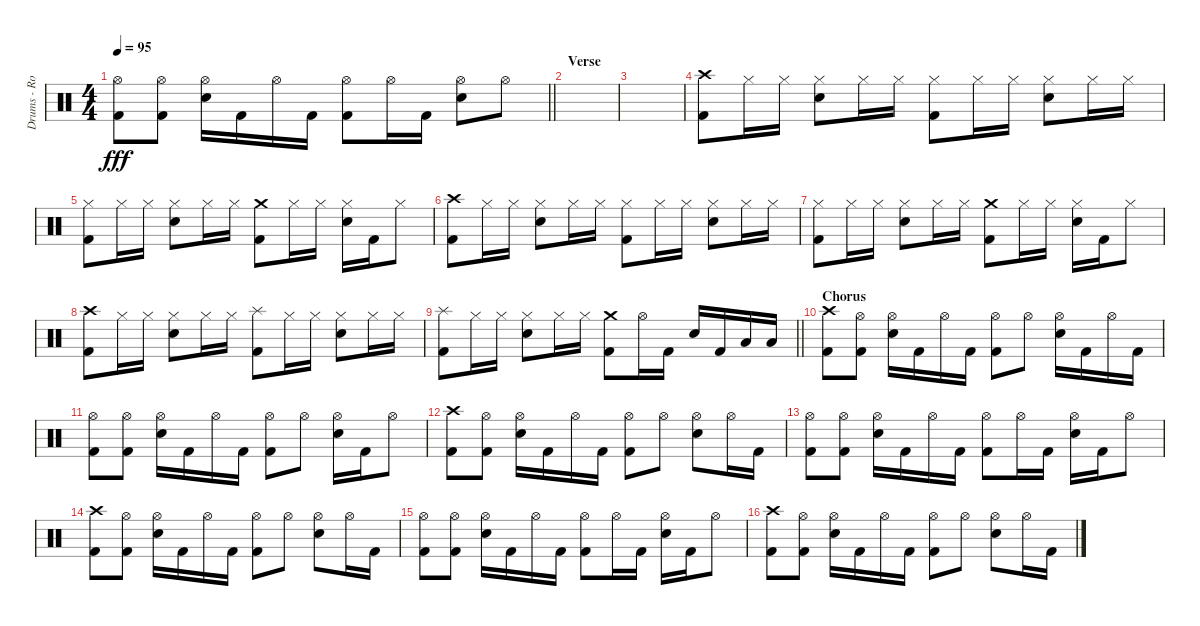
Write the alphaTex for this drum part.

\track ("Drums - Rob Bourdon" "Drums - Ro") {instrument percussion}
\staff {score}
\articulation defaults
\ts (4 4)
\tempo 95
\clef neutral
\barLineRight lightlight
\ks c
("Hi-Hat (open)" "Kick (hit) 2").8{dy fff} ("Hi-Hat (open)" "Kick (hit) 2").8 ("Hi-Hat (open)" "Snare (hit) 2").16 "Kick (hit) 2".16 "Hi-Hat (open)".16 "Kick (hit) 2".16 ("Hi-Hat (open)" "Kick (hit) 2").8 "Hi-Hat (open)".16 "Kick (hit) 2".16 ("Hi-Hat (open)" "Snare (hit) 2").8 "Hi-Hat (open)".8 |
\section ("" "Verse")
|
|
("Crash high (hit)" "Kick (hit) 2").8 "Hi-Hat (closed)".16 "Hi-Hat (closed)".16 ("Hi-Hat (closed)" "Snare (hit) 2").8 "Hi-Hat (closed)".16 "Hi-Hat (closed)".16 ("Hi-Hat (closed)" "Kick (hit) 2").8 "Hi-Hat (closed)".16 "Hi-Hat (closed)".16 ("Hi-Hat (closed)" "Snare (hit) 2").8 "Hi-Hat (closed)".16 "Hi-Hat (closed)".16 |
("Hi-Hat (closed)" "Kick (hit) 2").8 "Hi-Hat (closed)".16 "Hi-Hat (closed)".16 ("Hi-Hat (closed)" "Snare (hit) 2").8 "Hi-Hat (closed)".16 "Hi-Hat (closed)".16 ("Crash medium (hit)" "Kick (hit) 2").8 "Hi-Hat (closed)".16 "Hi-Hat (closed)".16 ("Hi-Hat (closed)" "Snare (hit) 2").16 "Kick (hit) 2".16 "Hi-Hat (closed)".8 |
("Crash high (hit)" "Kick (hit) 2").8 "Hi-Hat (closed)".16 "Hi-Hat (closed)".16 ("Hi-Hat (closed)" "Snare (hit) 2").8 "Hi-Hat (closed)".16 "Hi-Hat (closed)".16 ("Hi-Hat (closed)" "Kick (hit) 2").8 "Hi-Hat (closed)".16 "Hi-Hat (closed)".16 ("Hi-Hat (closed)" "Snare (hit) 2").8 "Hi-Hat (closed)".16 "Hi-Hat (closed)".16 |
("Hi-Hat (closed)" "Kick (hit) 2").8 "Hi-Hat (closed)".16 "Hi-Hat (closed)".16 ("Hi-Hat (closed)" "Snare (hit) 2").8 "Hi-Hat (closed)".16 "Hi-Hat (closed)".16 ("Crash medium (hit)" "Kick (hit) 2").8 "Hi-Hat (closed)".16 "Hi-Hat (closed)".16 ("Hi-Hat (closed)" "Snare (hit) 2").16 "Kick (hit) 2".16 "Hi-Hat (closed)".8 |
("Crash high (hit)" "Kick (hit) 2").8 "Hi-Hat (closed)".16 "Hi-Hat (closed)".16 ("Hi-Hat (closed)" "Snare (hit) 2").8 "Hi-Hat (closed)".16 "Hi-Hat (closed)".16 ("Splash (hit)" "Kick (hit) 2").8 "Hi-Hat (closed)".16 "Hi-Hat (closed)".16 ("Hi-Hat (closed)" "Snare (hit) 2").8 "Hi-Hat (closed)".16 "Hi-Hat (closed)".16 |
\barLineRight lightlight
("Splash (hit)" "Kick (hit) 2").8 "Hi-Hat (closed)".16 "Hi-Hat (closed)".16 ("Hi-Hat (closed)" "Snare (hit) 2").8 "Hi-Hat (closed)".16 "Hi-Hat (closed)".16 ("Crash medium (hit)" "Kick (hit) 2").8 "Hi-Hat (open)".16 "Kick (hit) 2".16 "Snare (hit) 2".16 "Kick (hit) 2".16 "Low Tom (hit)".16 "Low Tom (hit)".16 |
\section ("" "Chorus")
("Crash high (hit)" "Kick (hit) 2").8 ("Hi-Hat (open)" "Kick (hit) 2").8 ("Hi-Hat (open)" "Snare (hit) 2").16 "Kick (hit) 2".16 "Hi-Hat (open)".16 "Kick (hit) 2".16 ("Hi-Hat (open)" "Kick (hit) 2").8 "Hi-Hat (open)".8 ("Hi-Hat (open)" "Snare (hit) 2").16 "Kick (hit) 2".16 "Hi-Hat (open)".16 "Kick (hit) 2".16 |
("Hi-Hat (open)" "Kick (hit) 2").8 ("Hi-Hat (open)" "Kick (hit) 2").8 ("Hi-Hat (open)" "Snare (hit) 2").16 "Kick (hit) 2".16 "Hi-Hat (open)".16 "Kick (hit) 2".16 ("Hi-Hat (open)" "Kick (hit) 2").8 "Hi-Hat (open)".8 ("Hi-Hat (open)" "Snare (hit) 2").16 "Kick (hit) 2".16 "Hi-Hat (open)".8 |
("Crash high (hit)" "Kick (hit) 2").8 ("Hi-Hat (open)" "Kick (hit) 2").8 ("Hi-Hat (open)" "Snare (hit) 2").16 "Kick (hit) 2".16 "Hi-Hat (open)".16 "Kick (hit) 2".16 ("Hi-Hat (open)" "Kick (hit) 2").8 "Hi-Hat (open)".8 ("Hi-Hat (open)" "Snare (hit) 2").8 "Hi-Hat (open)".16 "Kick (hit) 2".16 |
("Hi-Hat (open)" "Kick (hit) 2").8 ("Hi-Hat (open)" "Kick (hit) 2").8 ("Hi-Hat (open)" "Snare (hit) 2").16 "Kick (hit) 2".16 "Hi-Hat (open)".16 "Kick (hit) 2".16 ("Hi-Hat (open)" "Kick (hit) 2").8 "Hi-Hat (open)".16 "Kick (hit) 2".16 ("Hi-Hat (open)" "Snare (hit) 2").16 "Kick (hit) 2".16 "Hi-Hat (open)".8 |
("Crash high (hit)" "Kick (hit) 2").8 ("Hi-Hat (open)" "Kick (hit) 2").8 ("Hi-Hat (open)" "Snare (hit) 2").16 "Kick (hit) 2".16 "Hi-Hat (open)".16 "Kick (hit) 2".16 ("Hi-Hat (open)" "Kick (hit) 2").8 "Hi-Hat (open)".8 ("Hi-Hat (open)" "Snare (hit) 2").8 "Hi-Hat (open)".16 "Kick (hit) 2".16 |
("Hi-Hat (open)" "Kick (hit) 2").8 ("Hi-Hat (open)" "Kick (hit) 2").8 ("Hi-Hat (open)" "Snare (hit) 2").16 "Kick (hit) 2".16 "Hi-Hat (open)".16 "Kick (hit) 2".16 ("Hi-Hat (open)" "Kick (hit) 2").8 "Hi-Hat (open)".16 "Kick (hit) 2".16 ("Hi-Hat (open)" "Snare (hit) 2").16 "Kick (hit) 2".16 "Hi-Hat (open)".8 |
("Crash high (hit)" "Kick (hit) 2").8 ("Hi-Hat (open)" "Kick (hit) 2").8 ("Hi-Hat (open)" "Snare (hit) 2").16 "Kick (hit) 2".16 "Hi-Hat (open)".16 "Kick (hit) 2".16 ("Hi-Hat (open)" "Kick (hit) 2").8 "Hi-Hat (open)".8 ("Hi-Hat (open)" "Snare (hit) 2").8 "Hi-Hat (open)".16 "Kick (hit) 2".16
